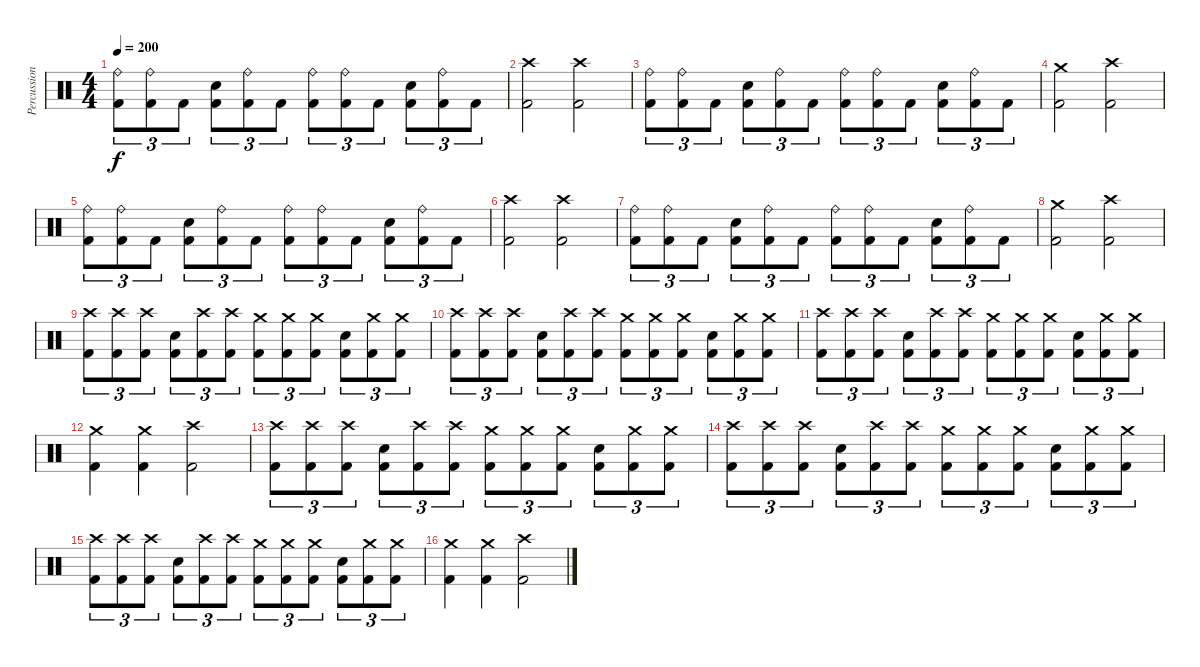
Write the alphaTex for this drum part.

\track ("Percussion" "Percussion") {instrument percussion}
\staff {score}
\articulation defaults
\ts (4 4)
\tempo 200
\clef neutral
\ks c
("Ride (bell)" "Kick (hit) 2").8{tu (3 2) dy f} ("Ride (bell)" "Kick (hit) 2").8{tu (3 2)} "Kick (hit) 2".8{tu (3 2)} ("Electric Snare (hit)" "Kick (hit) 2").8{tu (3 2)} ("Ride (bell)" "Kick (hit) 2").8{tu (3 2)} "Kick (hit) 2".8{tu (3 2)} ("Ride (bell)" "Kick (hit) 2").8{tu (3 2)} ("Ride (bell)" "Kick (hit) 2").8{tu (3 2)} "Kick (hit) 2".8{tu (3 2)} ("Electric Snare (hit)" "Kick (hit) 2").8{tu (3 2)} ("Ride (bell)" "Kick (hit) 2").8{tu (3 2)} "Kick (hit) 2".8{tu (3 2)} |
("Crash high (hit)" "Kick (hit) 2").2 ("Crash high (hit)" "Kick (hit) 2").2 |
("Ride (bell)" "Kick (hit) 2").8{tu (3 2)} ("Ride (bell)" "Kick (hit) 2").8{tu (3 2)} "Kick (hit) 2".8{tu (3 2)} ("Electric Snare (hit)" "Kick (hit) 2").8{tu (3 2)} ("Ride (bell)" "Kick (hit) 2").8{tu (3 2)} "Kick (hit) 2".8{tu (3 2)} ("Ride (bell)" "Kick (hit) 2").8{tu (3 2)} ("Ride (bell)" "Kick (hit) 2").8{tu (3 2)} "Kick (hit) 2".8{tu (3 2)} ("Electric Snare (hit)" "Kick (hit) 2").8{tu (3 2)} ("Ride (bell)" "Kick (hit) 2").8{tu (3 2)} "Kick (hit) 2".8{tu (3 2)} |
("Crash medium (hit)" "Kick (hit) 2").2 ("Crash high (hit)" "Kick (hit) 2").2 |
("Ride (bell)" "Kick (hit) 2").8{tu (3 2)} ("Ride (bell)" "Kick (hit) 2").8{tu (3 2)} "Kick (hit) 2".8{tu (3 2)} ("Electric Snare (hit)" "Kick (hit) 2").8{tu (3 2)} ("Ride (bell)" "Kick (hit) 2").8{tu (3 2)} "Kick (hit) 2".8{tu (3 2)} ("Ride (bell)" "Kick (hit) 2").8{tu (3 2)} ("Ride (bell)" "Kick (hit) 2").8{tu (3 2)} "Kick (hit) 2".8{tu (3 2)} ("Electric Snare (hit)" "Kick (hit) 2").8{tu (3 2)} ("Ride (bell)" "Kick (hit) 2").8{tu (3 2)} "Kick (hit) 2".8{tu (3 2)} |
("Crash high (hit)" "Kick (hit) 2").2 ("Crash high (hit)" "Kick (hit) 2").2 |
("Ride (bell)" "Kick (hit) 2").8{tu (3 2)} ("Ride (bell)" "Kick (hit) 2").8{tu (3 2)} "Kick (hit) 2".8{tu (3 2)} ("Electric Snare (hit)" "Kick (hit) 2").8{tu (3 2)} ("Ride (bell)" "Kick (hit) 2").8{tu (3 2)} "Kick (hit) 2".8{tu (3 2)} ("Ride (bell)" "Kick (hit) 2").8{tu (3 2)} ("Ride (bell)" "Kick (hit) 2").8{tu (3 2)} "Kick (hit) 2".8{tu (3 2)} ("Electric Snare (hit)" "Kick (hit) 2").8{tu (3 2)} ("Ride (bell)" "Kick (hit) 2").8{tu (3 2)} "Kick (hit) 2".8{tu (3 2)} |
("Crash medium (hit)" "Kick (hit) 2").2 ("Crash high (hit)" "Kick (hit) 2").2 |
("Crash high (hit)" "Kick (hit) 2").8{tu (3 2)} ("Crash high (hit)" "Kick (hit) 2").8{tu (3 2)} ("Crash high (hit)" "Kick (hit) 2").8{tu (3 2)} ("Electric Snare (hit)" "Kick (hit) 2").8{tu (3 2)} ("Crash high (hit)" "Kick (hit) 2").8{tu (3 2)} ("Crash high (hit)" "Kick (hit) 2").8{tu (3 2)} ("Crash medium (hit)" "Kick (hit) 2").8{tu (3 2)} ("Crash medium (hit)" "Kick (hit) 2").8{tu (3 2)} ("Crash medium (hit)" "Kick (hit) 2").8{tu (3 2)} ("Electric Snare (hit)" "Kick (hit) 2").8{tu (3 2)} ("Crash medium (hit)" "Kick (hit) 2").8{tu (3 2)} ("Crash medium (hit)" "Kick (hit) 2").8{tu (3 2)} |
("Crash high (hit)" "Kick (hit) 2").8{tu (3 2)} ("Crash high (hit)" "Kick (hit) 2").8{tu (3 2)} ("Crash high (hit)" "Kick (hit) 2").8{tu (3 2)} ("Electric Snare (hit)" "Kick (hit) 2").8{tu (3 2)} ("Crash high (hit)" "Kick (hit) 2").8{tu (3 2)} ("Crash high (hit)" "Kick (hit) 2").8{tu (3 2)} ("Crash medium (hit)" "Kick (hit) 2").8{tu (3 2)} ("Crash medium (hit)" "Kick (hit) 2").8{tu (3 2)} ("Crash medium (hit)" "Kick (hit) 2").8{tu (3 2)} ("Electric Snare (hit)" "Kick (hit) 2").8{tu (3 2)} ("Crash medium (hit)" "Kick (hit) 2").8{tu (3 2)} ("Crash medium (hit)" "Kick (hit) 2").8{tu (3 2)} |
("Crash high (hit)" "Kick (hit) 2").8{tu (3 2)} ("Crash high (hit)" "Kick (hit) 2").8{tu (3 2)} ("Crash high (hit)" "Kick (hit) 2").8{tu (3 2)} ("Electric Snare (hit)" "Kick (hit) 2").8{tu (3 2)} ("Crash high (hit)" "Kick (hit) 2").8{tu (3 2)} ("Crash high (hit)" "Kick (hit) 2").8{tu (3 2)} ("Crash medium (hit)" "Kick (hit) 2").8{tu (3 2)} ("Crash medium (hit)" "Kick (hit) 2").8{tu (3 2)} ("Crash medium (hit)" "Kick (hit) 2").8{tu (3 2)} ("Electric Snare (hit)" "Kick (hit) 2").8{tu (3 2)} ("Crash medium (hit)" "Kick (hit) 2").8{tu (3 2)} ("Crash medium (hit)" "Kick (hit) 2").8{tu (3 2)} |
("Crash medium (hit)" "Kick (hit) 2").4 ("Crash medium (hit)" "Kick (hit) 2").4 ("Crash high (hit)" "Kick (hit) 2").2 |
("Crash high (hit)" "Kick (hit) 2").8{tu (3 2)} ("Crash high (hit)" "Kick (hit) 2").8{tu (3 2)} ("Crash high (hit)" "Kick (hit) 2").8{tu (3 2)} ("Electric Snare (hit)" "Kick (hit) 2").8{tu (3 2)} ("Crash high (hit)" "Kick (hit) 2").8{tu (3 2)} ("Crash high (hit)" "Kick (hit) 2").8{tu (3 2)} ("Crash medium (hit)" "Kick (hit) 2").8{tu (3 2)} ("Crash medium (hit)" "Kick (hit) 2").8{tu (3 2)} ("Crash medium (hit)" "Kick (hit) 2").8{tu (3 2)} ("Electric Snare (hit)" "Kick (hit) 2").8{tu (3 2)} ("Crash medium (hit)" "Kick (hit) 2").8{tu (3 2)} ("Crash medium (hit)" "Kick (hit) 2").8{tu (3 2)} |
("Crash high (hit)" "Kick (hit) 2").8{tu (3 2)} ("Crash high (hit)" "Kick (hit) 2").8{tu (3 2)} ("Crash high (hit)" "Kick (hit) 2").8{tu (3 2)} ("Electric Snare (hit)" "Kick (hit) 2").8{tu (3 2)} ("Crash high (hit)" "Kick (hit) 2").8{tu (3 2)} ("Crash high (hit)" "Kick (hit) 2").8{tu (3 2)} ("Crash medium (hit)" "Kick (hit) 2").8{tu (3 2)} ("Crash medium (hit)" "Kick (hit) 2").8{tu (3 2)} ("Crash medium (hit)" "Kick (hit) 2").8{tu (3 2)} ("Electric Snare (hit)" "Kick (hit) 2").8{tu (3 2)} ("Crash medium (hit)" "Kick (hit) 2").8{tu (3 2)} ("Crash medium (hit)" "Kick (hit) 2").8{tu (3 2)} |
("Crash high (hit)" "Kick (hit) 2").8{tu (3 2)} ("Crash high (hit)" "Kick (hit) 2").8{tu (3 2)} ("Crash high (hit)" "Kick (hit) 2").8{tu (3 2)} ("Electric Snare (hit)" "Kick (hit) 2").8{tu (3 2)} ("Crash high (hit)" "Kick (hit) 2").8{tu (3 2)} ("Crash high (hit)" "Kick (hit) 2").8{tu (3 2)} ("Crash medium (hit)" "Kick (hit) 2").8{tu (3 2)} ("Crash medium (hit)" "Kick (hit) 2").8{tu (3 2)} ("Crash medium (hit)" "Kick (hit) 2").8{tu (3 2)} ("Electric Snare (hit)" "Kick (hit) 2").8{tu (3 2)} ("Crash medium (hit)" "Kick (hit) 2").8{tu (3 2)} ("Crash medium (hit)" "Kick (hit) 2").8{tu (3 2)} |
("Crash medium (hit)" "Kick (hit) 2").4 ("Crash medium (hit)" "Kick (hit) 2").4 ("Crash high (hit)" "Kick (hit) 2").2
